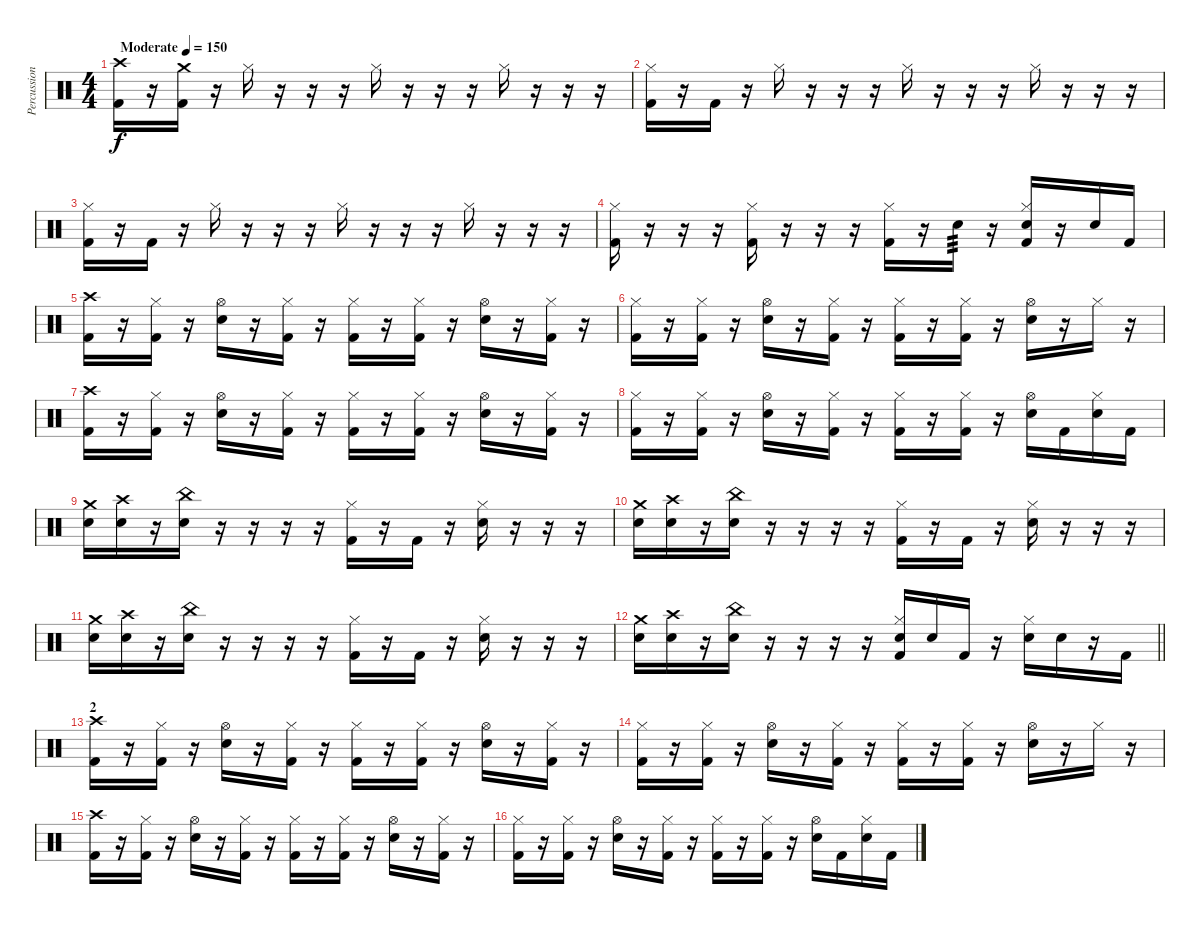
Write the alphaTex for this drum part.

\track ("Percussion" "Percussion") {instrument percussion}
\staff {score}
\articulation defaults
\ts (4 4)
\tempo (150 "Moderate")
\clef neutral
\ks c
("Crash high (hit)" "Kick (hit) 2").16{dy f} r.16 ("Crash medium (hit)" "Kick (hit) 2").16 r.16 "Hi-Hat (closed)".16 r.16 r.16 r.16 "Hi-Hat (closed)".16 r.16 r.16 r.16 "Hi-Hat (closed)".16 r.16 r.16 r.16 |
("Hi-Hat (closed)" "Kick (hit) 2").16 r.16 "Kick (hit) 2".16 r.16 "Hi-Hat (closed)".16 r.16 r.16 r.16 "Hi-Hat (closed)".16 r.16 r.16 r.16 "Hi-Hat (closed)".16 r.16 r.16 r.16 |
("Hi-Hat (closed)" "Kick (hit) 2").16 r.16 "Kick (hit) 2".16 r.16 "Hi-Hat (closed)".16 r.16 r.16 r.16 "Hi-Hat (closed)".16 r.16 r.16 r.16 "Hi-Hat (closed)".16 r.16 r.16 r.16 |
("Hi-Hat (closed)" "Kick (hit) 2").16 r.16 r.16 r.16 ("Hi-Hat (closed)" "Kick (hit) 2").16 r.16 r.16 r.16 ("Hi-Hat (closed)" "Kick (hit) 2").16 r.16 "Snare (hit) 2".16{tp 3} r.16 ("Hi-Hat (closed)" "Snare (hit) 2" "Kick (hit) 2").16 r.16 "Snare (hit) 2".16 "Kick (hit) 2".16 |
("Crash high (hit)" "Kick (hit) 2").16 r.16 ("Hi-Hat (closed)" "Kick (hit) 2").16 r.16 ("Hi-Hat (open)" "Snare (hit) 2").16 r.16 ("Hi-Hat (closed)" "Kick (hit) 2").16 r.16 ("Hi-Hat (closed)" "Kick (hit) 2").16 r.16 ("Hi-Hat (closed)" "Kick (hit) 2").16 r.16 ("Hi-Hat (open)" "Snare (hit) 2").16 r.16 ("Hi-Hat (closed)" "Kick (hit) 2").16 r.16 |
("Hi-Hat (closed)" "Kick (hit) 2").16 r.16 ("Hi-Hat (closed)" "Kick (hit) 2").16 r.16 ("Hi-Hat (open)" "Snare (hit) 2").16 r.16 ("Hi-Hat (closed)" "Kick (hit) 2").16 r.16 ("Hi-Hat (closed)" "Kick (hit) 2").16 r.16 ("Hi-Hat (closed)" "Kick (hit) 2").16 r.16 ("Hi-Hat (open)" "Snare (hit) 2").16 r.16 "Hi-Hat (closed)".16 r.16 |
("Crash high (hit)" "Kick (hit) 2").16 r.16 ("Hi-Hat (closed)" "Kick (hit) 2").16 r.16 ("Hi-Hat (open)" "Snare (hit) 2").16 r.16 ("Hi-Hat (closed)" "Kick (hit) 2").16 r.16 ("Hi-Hat (closed)" "Kick (hit) 2").16 r.16 ("Hi-Hat (closed)" "Kick (hit) 2").16 r.16 ("Hi-Hat (open)" "Snare (hit) 2").16 r.16 ("Hi-Hat (closed)" "Kick (hit) 2").16 r.16 |
("Hi-Hat (closed)" "Kick (hit) 2").16 r.16 ("Hi-Hat (closed)" "Kick (hit) 2").16 r.16 ("Hi-Hat (open)" "Snare (hit) 2").16 r.16 ("Hi-Hat (closed)" "Kick (hit) 2").16 r.16 ("Hi-Hat (closed)" "Kick (hit) 2").16 r.16 ("Hi-Hat (closed)" "Kick (hit) 2").16 r.16 ("Hi-Hat (open)" "Snare (hit) 2").16 "Kick (hit) 2".16 ("Hi-Hat (closed)" "Snare (hit) 2").16 "Kick (hit) 2".16 |
("Crash medium (hit)" "Snare (hit) 2").16 ("Crash high (hit)" "Snare (hit) 2").16 r.16 ("China (hit)" "Snare (hit) 2").16 r.16 r.16 r.16 r.16 ("Hi-Hat (closed)" "Kick (hit) 2").16 r.16 "Kick (hit) 2".16 r.16 ("Hi-Hat (closed)" "Snare (hit) 2").16 r.16 r.16 r.16 |
("Crash medium (hit)" "Snare (hit) 2").16 ("Crash high (hit)" "Snare (hit) 2").16 r.16 ("China (hit)" "Snare (hit) 2").16 r.16 r.16 r.16 r.16 ("Hi-Hat (closed)" "Kick (hit) 2").16 r.16 "Kick (hit) 2".16 r.16 ("Hi-Hat (closed)" "Snare (hit) 2").16 r.16 r.16 r.16 |
("Crash medium (hit)" "Snare (hit) 2").16 ("Crash high (hit)" "Snare (hit) 2").16 r.16 ("China (hit)" "Snare (hit) 2").16 r.16 r.16 r.16 r.16 ("Hi-Hat (closed)" "Kick (hit) 2").16 r.16 "Kick (hit) 2".16 r.16 ("Hi-Hat (closed)" "Snare (hit) 2").16 r.16 r.16 r.16 |
\barLineRight lightlight
("Crash medium (hit)" "Snare (hit) 2").16 ("Crash high (hit)" "Snare (hit) 2").16 r.16 ("China (hit)" "Snare (hit) 2").16 r.16 r.16 r.16 r.16 ("Hi-Hat (closed)" "Snare (hit) 2" "Kick (hit) 2").16 "Snare (hit) 2".16 "Kick (hit) 2".16 r.16 ("Hi-Hat (closed)" "Snare (hit) 2").16 "Snare (hit) 2".16 r.16 "Kick (hit) 2".16 |
\section ("" "2")
("Crash high (hit)" "Kick (hit) 2").16 r.16 ("Hi-Hat (closed)" "Kick (hit) 2").16 r.16 ("Hi-Hat (open)" "Snare (hit) 2").16 r.16 ("Hi-Hat (closed)" "Kick (hit) 2").16 r.16 ("Hi-Hat (closed)" "Kick (hit) 2").16 r.16 ("Hi-Hat (closed)" "Kick (hit) 2").16 r.16 ("Hi-Hat (open)" "Snare (hit) 2").16 r.16 ("Hi-Hat (closed)" "Kick (hit) 2").16 r.16 |
("Hi-Hat (closed)" "Kick (hit) 2").16 r.16 ("Hi-Hat (closed)" "Kick (hit) 2").16 r.16 ("Hi-Hat (open)" "Snare (hit) 2").16 r.16 ("Hi-Hat (closed)" "Kick (hit) 2").16 r.16 ("Hi-Hat (closed)" "Kick (hit) 2").16 r.16 ("Hi-Hat (closed)" "Kick (hit) 2").16 r.16 ("Hi-Hat (open)" "Snare (hit) 2").16 r.16 "Hi-Hat (closed)".16 r.16 |
("Crash high (hit)" "Kick (hit) 2").16 r.16 ("Hi-Hat (closed)" "Kick (hit) 2").16 r.16 ("Hi-Hat (open)" "Snare (hit) 2").16 r.16 ("Hi-Hat (closed)" "Kick (hit) 2").16 r.16 ("Hi-Hat (closed)" "Kick (hit) 2").16 r.16 ("Hi-Hat (closed)" "Kick (hit) 2").16 r.16 ("Hi-Hat (open)" "Snare (hit) 2").16 r.16 ("Hi-Hat (closed)" "Kick (hit) 2").16 r.16 |
("Hi-Hat (closed)" "Kick (hit) 2").16 r.16 ("Hi-Hat (closed)" "Kick (hit) 2").16 r.16 ("Hi-Hat (open)" "Snare (hit) 2").16 r.16 ("Hi-Hat (closed)" "Kick (hit) 2").16 r.16 ("Hi-Hat (closed)" "Kick (hit) 2").16 r.16 ("Hi-Hat (closed)" "Kick (hit) 2").16 r.16 ("Hi-Hat (open)" "Snare (hit) 2").16 "Kick (hit) 2".16 ("Hi-Hat (closed)" "Snare (hit) 2").16 "Kick (hit) 2".16
